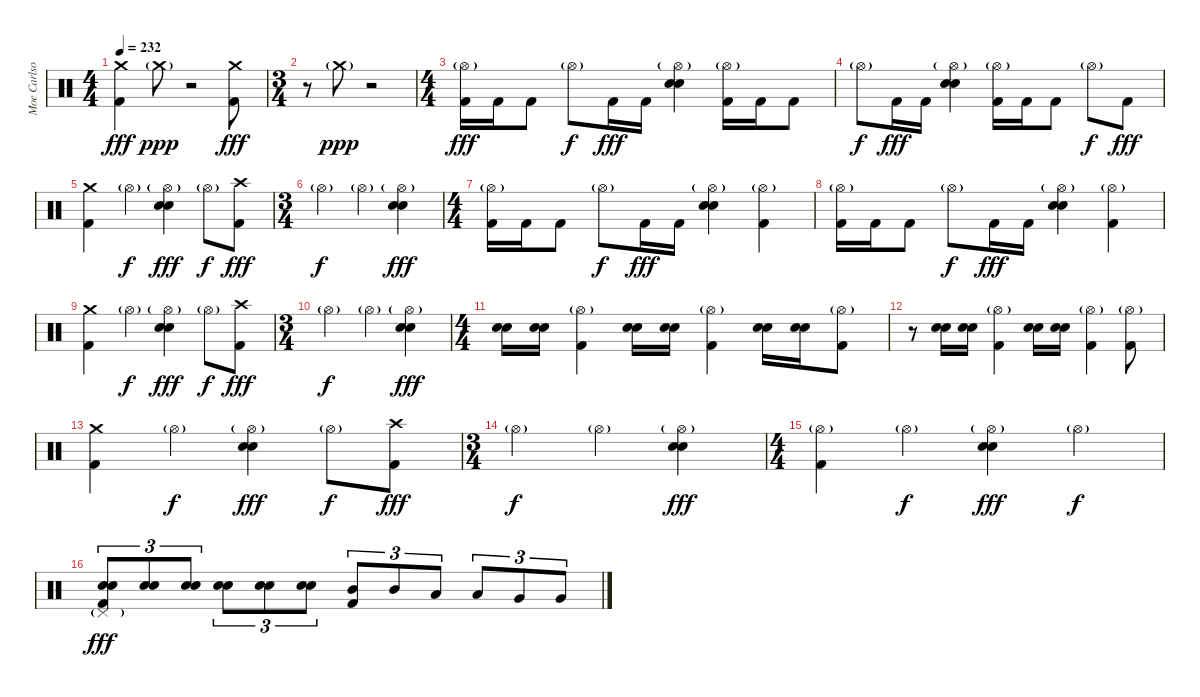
\track ("Moe Carlson" "Moe Carlso") {instrument percussion}
\staff {score}
\articulation defaults
\ts (4 4)
\tempo 232
\clef neutral
\ks c
("Crash medium (hit)" "Kick (hit) 2").4{dy fff} "Crash medium (hit)"{g}.8{dy ppp} r.2 ("Crash medium (hit)" "Kick (hit) 2").8{dy fff} |
\ts (3 4)
r.8 "Crash medium (hit)"{g}.8{dy ppp} r.2 |
\ts (4 4)
("Hi-Hat (open)"{g} "Kick (hit) 2").16{dy fff} "Kick (hit) 2".16 "Kick (hit) 2".8 "Hi-Hat (open)"{g}.8{dy f} "Kick (hit) 2".16{dy fff} "Kick (hit) 2".16 ("Hi-Hat (open)"{g} "Snare (hit) 2" "Electric Snare (hit)").4 ("Hi-Hat (open)"{g} "Kick (hit) 2").16 "Kick (hit) 2".16 "Kick (hit) 2".8 |
"Hi-Hat (open)"{g}.8{dy f} "Kick (hit) 2".16{dy fff} "Kick (hit) 2".16 ("Hi-Hat (open)"{g} "Snare (hit) 2" "Electric Snare (hit)").4 ("Hi-Hat (open)"{g} "Kick (hit) 2").16 "Kick (hit) 2".16 "Kick (hit) 2".8 "Hi-Hat (open)"{g}.8{dy f} "Kick (hit) 2".8{dy fff} |
("Crash medium (hit)" "Kick (hit) 2").4 "Hi-Hat (open)"{g}.4{dy f} ("Hi-Hat (open)"{g} "Snare (hit) 2" "Electric Snare (hit)").4{dy fff} "Hi-Hat (open)"{g}.8{dy f} ("Crash high (hit)" "Kick (hit) 2").8{dy fff} |
\ts (3 4)
"Hi-Hat (open)"{g}.4{dy f} "Hi-Hat (open)"{g}.4 ("Hi-Hat (open)"{g} "Snare (hit) 2" "Electric Snare (hit)").4{dy fff} |
\ts (4 4)
("Hi-Hat (open)"{g} "Kick (hit) 2").16 "Kick (hit) 2".16 "Kick (hit) 2".8 "Hi-Hat (open)"{g}.8{dy f} "Kick (hit) 2".16{dy fff} "Kick (hit) 2".16 ("Hi-Hat (open)"{g} "Snare (hit) 2" "Electric Snare (hit)").4 ("Hi-Hat (open)"{g} "Kick (hit) 2").4 |
("Hi-Hat (open)"{g} "Kick (hit) 2").16 "Kick (hit) 2".16 "Kick (hit) 2".8 "Hi-Hat (open)"{g}.8{dy f} "Kick (hit) 2".16{dy fff} "Kick (hit) 2".16 ("Hi-Hat (open)"{g} "Snare (hit) 2" "Electric Snare (hit)").4 ("Hi-Hat (open)"{g} "Kick (hit) 2").4 |
("Crash medium (hit)" "Kick (hit) 2").4 "Hi-Hat (open)"{g}.4{dy f} ("Hi-Hat (open)"{g} "Snare (hit) 2" "Electric Snare (hit)").4{dy fff} "Hi-Hat (open)"{g}.8{dy f} ("Crash high (hit)" "Kick (hit) 2").8{dy fff} |
\ts (3 4)
"Hi-Hat (open)"{g}.4{dy f} "Hi-Hat (open)"{g}.4 ("Hi-Hat (open)"{g} "Snare (hit) 2" "Electric Snare (hit)").4{dy fff} |
\ts (4 4)
("Snare (hit) 2" "Electric Snare (hit)").16 ("Snare (hit) 2" "Electric Snare (hit)").16 ("Hi-Hat (open)"{g} "Kick (hit) 2").4 ("Snare (hit) 2" "Electric Snare (hit)").16 ("Snare (hit) 2" "Electric Snare (hit)").16 ("Hi-Hat (open)"{g} "Kick (hit) 2").4 ("Snare (hit) 2" "Electric Snare (hit)").16 ("Snare (hit) 2" "Electric Snare (hit)").16 ("Hi-Hat (open)"{g} "Kick (hit) 2").8 |
r.8 ("Snare (hit) 2" "Electric Snare (hit)").16 ("Snare (hit) 2" "Electric Snare (hit)").16 ("Hi-Hat (open)"{g} "Kick (hit) 2").4 ("Snare (hit) 2" "Electric Snare (hit)").16 ("Snare (hit) 2" "Electric Snare (hit)").16 ("Hi-Hat (open)"{g} "Kick (hit) 2").4 ("Hi-Hat (open)"{g} "Kick (hit) 2").8 |
("Crash medium (hit)" "Kick (hit) 2").4 "Hi-Hat (open)"{g}.4{dy f} ("Hi-Hat (open)"{g} "Snare (hit) 2" "Electric Snare (hit)").4{dy fff} "Hi-Hat (open)"{g}.8{dy f} ("Crash high (hit)" "Kick (hit) 2").8{dy fff} |
\ts (3 4)
"Hi-Hat (open)"{g}.4{dy f} "Hi-Hat (open)"{g}.4 ("Hi-Hat (open)"{g} "Snare (hit) 2" "Electric Snare (hit)").4{dy fff} |
\ts (4 4)
("Hi-Hat (open)"{g} "Kick (hit) 2").4 "Hi-Hat (open)"{g}.4{dy f} ("Hi-Hat (open)"{g} "Snare (hit) 2" "Electric Snare (hit)").4{dy fff} "Hi-Hat (open)"{g}.4{dy f} |
("Snare (hit) 2" "Electric Snare (hit)" "Pedal Hi-Hat (hit)"{g} "Kick (hit) 2").8{tu (3 2) dy fff} ("Snare (hit) 2" "Electric Snare (hit)").8{tu (3 2)} ("Snare (hit) 2" "Electric Snare (hit)").8{tu (3 2)} ("Snare (hit) 2" "Electric Snare (hit)").8{tu (3 2)} ("Snare (hit) 2" "Electric Snare (hit)").8{tu (3 2)} ("Snare (hit) 2" "Electric Snare (hit)").8{tu (3 2)} ("Mid Tom (hit)" "Kick (hit) 2").8{tu (3 2)} "Mid Tom (hit)".8{tu (3 2)} "Low Tom (hit)".8{tu (3 2)} "Low Tom (hit)".8{tu (3 2)} "Very Low Tom (hit)".8{tu (3 2)} "Very Low Tom (hit)".8{tu (3 2)}
